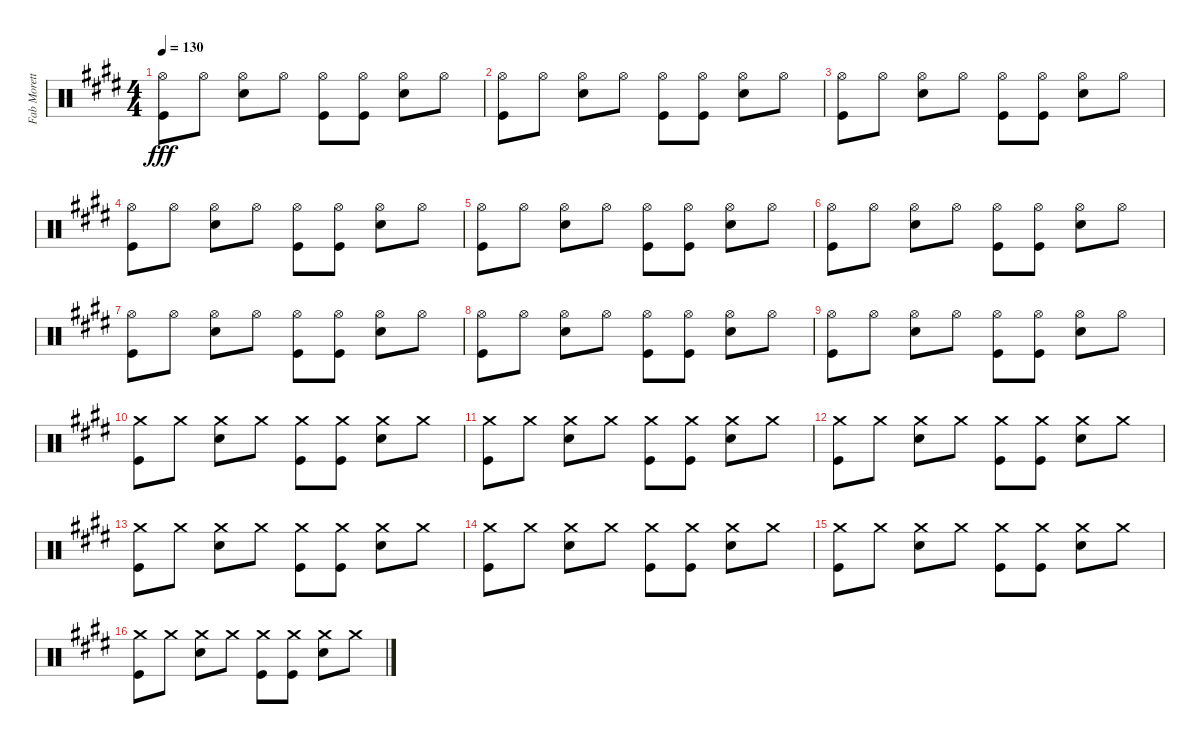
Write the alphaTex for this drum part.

\track ("Fab Moretti" "Fab Morett") {instrument percussion}
\staff {score}
\articulation defaults
\ts (4 4)
\tempo 130
\clef neutral
\ks e
("Hi-Hat (open)" "Kick (hit)").8{dy fff} "Hi-Hat (open)".8 ("Hi-Hat (open)" "Snare (hit) 2").8 "Hi-Hat (open)".8 ("Hi-Hat (open)" "Kick (hit)").8 ("Hi-Hat (open)" "Kick (hit)").8 ("Hi-Hat (open)" "Snare (hit) 2").8 "Hi-Hat (open)".8 |
("Hi-Hat (open)" "Kick (hit)").8 "Hi-Hat (open)".8 ("Hi-Hat (open)" "Snare (hit) 2").8 "Hi-Hat (open)".8 ("Hi-Hat (open)" "Kick (hit)").8 ("Hi-Hat (open)" "Kick (hit)").8 ("Hi-Hat (open)" "Snare (hit) 2").8 "Hi-Hat (open)".8 |
("Hi-Hat (open)" "Kick (hit)").8 "Hi-Hat (open)".8 ("Hi-Hat (open)" "Snare (hit) 2").8 "Hi-Hat (open)".8 ("Hi-Hat (open)" "Kick (hit)").8 ("Hi-Hat (open)" "Kick (hit)").8 ("Hi-Hat (open)" "Snare (hit) 2").8 "Hi-Hat (open)".8 |
("Hi-Hat (open)" "Kick (hit)").8 "Hi-Hat (open)".8 ("Hi-Hat (open)" "Snare (hit) 2").8 "Hi-Hat (open)".8 ("Hi-Hat (open)" "Kick (hit)").8 ("Hi-Hat (open)" "Kick (hit)").8 ("Hi-Hat (open)" "Snare (hit) 2").8 "Hi-Hat (open)".8 |
("Hi-Hat (open)" "Kick (hit)").8 "Hi-Hat (open)".8 ("Hi-Hat (open)" "Snare (hit) 2").8 "Hi-Hat (open)".8 ("Hi-Hat (open)" "Kick (hit)").8 ("Hi-Hat (open)" "Kick (hit)").8 ("Hi-Hat (open)" "Snare (hit) 2").8 "Hi-Hat (open)".8 |
("Hi-Hat (open)" "Kick (hit)").8 "Hi-Hat (open)".8 ("Hi-Hat (open)" "Snare (hit) 2").8 "Hi-Hat (open)".8 ("Hi-Hat (open)" "Kick (hit)").8 ("Hi-Hat (open)" "Kick (hit)").8 ("Hi-Hat (open)" "Snare (hit) 2").8 "Hi-Hat (open)".8 |
("Hi-Hat (open)" "Kick (hit)").8 "Hi-Hat (open)".8 ("Hi-Hat (open)" "Snare (hit) 2").8 "Hi-Hat (open)".8 ("Hi-Hat (open)" "Kick (hit)").8 ("Hi-Hat (open)" "Kick (hit)").8 ("Hi-Hat (open)" "Snare (hit) 2").8 "Hi-Hat (open)".8 |
("Hi-Hat (open)" "Kick (hit)").8 "Hi-Hat (open)".8 ("Hi-Hat (open)" "Snare (hit) 2").8 "Hi-Hat (open)".8 ("Hi-Hat (open)" "Kick (hit)").8 ("Hi-Hat (open)" "Kick (hit)").8 ("Hi-Hat (open)" "Snare (hit) 2").8 "Hi-Hat (open)".8 |
("Hi-Hat (open)" "Kick (hit)").8 "Hi-Hat (open)".8 ("Hi-Hat (open)" "Snare (hit) 2").8 "Hi-Hat (open)".8 ("Hi-Hat (open)" "Kick (hit)").8 ("Hi-Hat (open)" "Kick (hit)").8 ("Hi-Hat (open)" "Snare (hit) 2").8 "Hi-Hat (open)".8 |
("Crash medium (hit)" "Kick (hit)").8 "Crash medium (hit)".8 ("Crash medium (hit)" "Snare (hit) 2").8 "Crash medium (hit)".8 ("Crash medium (hit)" "Kick (hit)").8 ("Crash medium (hit)" "Kick (hit)").8 ("Crash medium (hit)" "Snare (hit) 2").8 "Crash medium (hit)".8 |
("Crash medium (hit)" "Kick (hit)").8 "Crash medium (hit)".8 ("Crash medium (hit)" "Snare (hit) 2").8 "Crash medium (hit)".8 ("Crash medium (hit)" "Kick (hit)").8 ("Crash medium (hit)" "Kick (hit)").8 ("Crash medium (hit)" "Snare (hit) 2").8 "Crash medium (hit)".8 |
("Crash medium (hit)" "Kick (hit)").8 "Crash medium (hit)".8 ("Crash medium (hit)" "Snare (hit) 2").8 "Crash medium (hit)".8 ("Crash medium (hit)" "Kick (hit)").8 ("Crash medium (hit)" "Kick (hit)").8 ("Crash medium (hit)" "Snare (hit) 2").8 "Crash medium (hit)".8 |
("Crash medium (hit)" "Kick (hit)").8 "Crash medium (hit)".8 ("Crash medium (hit)" "Snare (hit) 2").8 "Crash medium (hit)".8 ("Crash medium (hit)" "Kick (hit)").8 ("Crash medium (hit)" "Kick (hit)").8 ("Crash medium (hit)" "Snare (hit) 2").8 "Crash medium (hit)".8 |
("Crash medium (hit)" "Kick (hit)").8 "Crash medium (hit)".8 ("Crash medium (hit)" "Snare (hit) 2").8 "Crash medium (hit)".8 ("Crash medium (hit)" "Kick (hit)").8 ("Crash medium (hit)" "Kick (hit)").8 ("Crash medium (hit)" "Snare (hit) 2").8 "Crash medium (hit)".8 |
("Crash medium (hit)" "Kick (hit)").8 "Crash medium (hit)".8 ("Crash medium (hit)" "Snare (hit) 2").8 "Crash medium (hit)".8 ("Crash medium (hit)" "Kick (hit)").8 ("Crash medium (hit)" "Kick (hit)").8 ("Crash medium (hit)" "Snare (hit) 2").8 "Crash medium (hit)".8 |
("Crash medium (hit)" "Kick (hit)").8 "Crash medium (hit)".8 ("Crash medium (hit)" "Snare (hit) 2").8 "Crash medium (hit)".8 ("Crash medium (hit)" "Kick (hit)").8 ("Crash medium (hit)" "Kick (hit)").8 ("Crash medium (hit)" "Snare (hit) 2").8 "Crash medium (hit)".8
